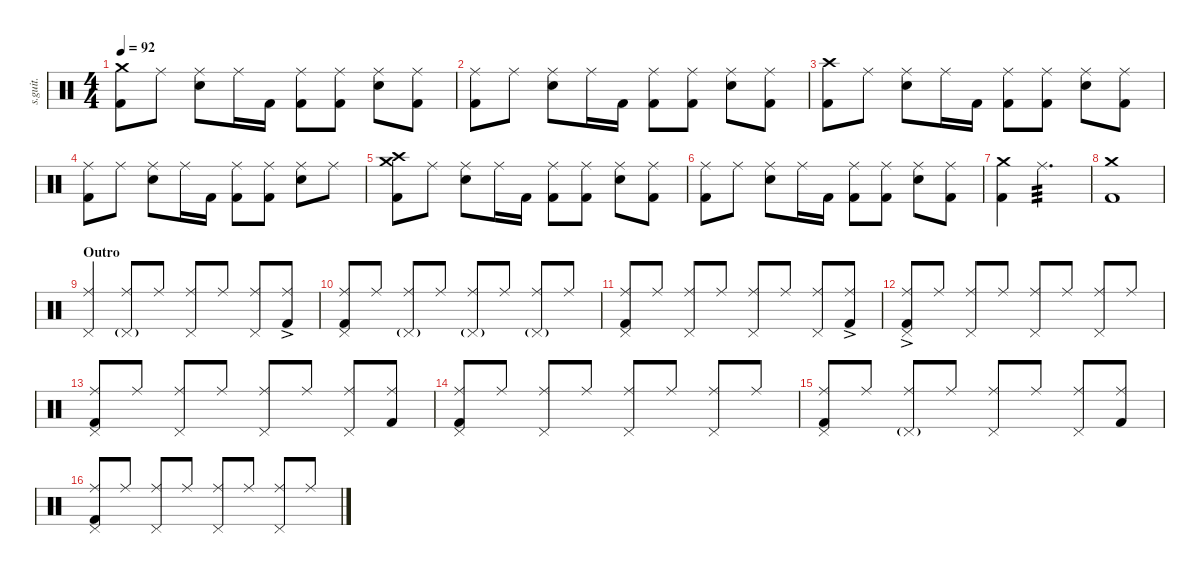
\defaultSystemsLayout 4
\hideDynamics
\bracketExtendMode nobrackets
\track ("Phil Selway | DW Drum Kit | Drums" "s.guit.") {instrument percussion}
\staff {score}
\articulation defaults
\ts (4 4)
\tempo 92
\clef neutral
\ks c
("Crash medium (hit)" "Kick (hit) 2").8{dy fff} "Ride (middle)".8 ("Ride (middle)" "Snare (hit) 2").8 "Ride (middle)".16 "Kick (hit) 2".16 ("Ride (middle)" "Kick (hit) 2").8 ("Ride (middle)" "Kick (hit) 2").8 ("Ride (middle)" "Snare (hit) 2").8 ("Ride (middle)" "Kick (hit) 2").8 |
("Ride (middle)" "Kick (hit) 2").8 "Ride (middle)".8 ("Ride (middle)" "Snare (hit) 2").8 "Ride (middle)".16 "Kick (hit) 2".16 ("Ride (middle)" "Kick (hit) 2").8 ("Ride (middle)" "Kick (hit) 2").8 ("Ride (middle)" "Snare (hit) 2").8 ("Ride (middle)" "Kick (hit) 2").8 |
("Crash high (hit)" "Kick (hit) 2").8 "Ride (middle)".8 ("Ride (middle)" "Snare (hit) 2").8 "Ride (middle)".16 "Kick (hit) 2".16 ("Ride (middle)" "Kick (hit) 2").8 ("Ride (middle)" "Kick (hit) 2").8 ("Ride (middle)" "Snare (hit) 2").8 ("Ride (middle)" "Kick (hit) 2").8 |
("Ride (middle)" "Kick (hit) 2").8 "Ride (middle)".8 ("Ride (middle)" "Snare (hit) 2").8 "Ride (middle)".16 "Kick (hit) 2".16 ("Ride (middle)" "Kick (hit) 2").8 ("Ride (middle)" "Kick (hit) 2").8 ("Ride (middle)" "Snare (hit) 2").8 "Ride (middle)".8 |
("Crash high (hit)" "Crash medium (hit)" "Kick (hit) 2").8 "Ride (middle)".8 ("Ride (middle)" "Snare (hit) 2").8 "Ride (middle)".16 "Kick (hit) 2".16 ("Ride (middle)" "Kick (hit) 2").8 ("Ride (middle)" "Kick (hit) 2").8 ("Ride (middle)" "Snare (hit) 2").8 ("Ride (middle)" "Kick (hit) 2").8 |
("Ride (middle)" "Kick (hit) 2").8 "Ride (middle)".8 ("Ride (middle)" "Snare (hit) 2").8 "Ride (middle)".16 "Kick (hit) 2".16 ("Ride (middle)" "Kick (hit) 2").8 ("Ride (middle)" "Kick (hit) 2").8 ("Ride (middle)" "Snare (hit) 2").8 ("Ride (middle)" "Kick (hit) 2").8 |
("Crash medium (hit)" "Kick (hit) 2").4 "Ride (middle)".2{d tp 3 dy f} |
("Crash medium (hit)" "Kick (hit) 2").1{dy fff} |
\section ("" "Outro")
("Ride (middle)" "Pedal Hi-Hat (hit)").4{dy mf} ("Ride (middle)" "Pedal Hi-Hat (hit)"{g}).8 "Ride (middle)".8 ("Ride (middle)" "Pedal Hi-Hat (hit)").8 "Ride (middle)".8 ("Ride (middle)" "Pedal Hi-Hat (hit)").8 ("Ride (middle)"{ac} "Kick (hit) 2").8 |
("Ride (middle)" "Kick (hit) 2" "Pedal Hi-Hat (hit)").8 "Ride (middle)".8 ("Ride (middle)" "Pedal Hi-Hat (hit)"{g}).8 "Ride (middle)".8 ("Ride (middle)" "Pedal Hi-Hat (hit)"{g}).8 "Ride (middle)".8 ("Ride (middle)" "Pedal Hi-Hat (hit)"{g}).8 "Ride (middle)".8 |
("Ride (middle)" "Kick (hit) 2" "Pedal Hi-Hat (hit)").8 "Ride (middle)".8 ("Ride (middle)" "Pedal Hi-Hat (hit)").8 "Ride (middle)".8 ("Ride (middle)" "Pedal Hi-Hat (hit)").8 "Ride (middle)".8 ("Ride (middle)" "Pedal Hi-Hat (hit)").8 ("Ride (middle)"{ac} "Kick (hit) 2").8 |
("Ride (middle)"{ac} "Kick (hit) 2" "Pedal Hi-Hat (hit)").8 "Ride (middle)".8 ("Ride (middle)" "Pedal Hi-Hat (hit)").8 "Ride (middle)".8 ("Ride (middle)" "Pedal Hi-Hat (hit)").8 "Ride (middle)".8 ("Ride (middle)" "Pedal Hi-Hat (hit)").8 "Ride (middle)".8 |
("Ride (middle)" "Kick (hit) 2" "Pedal Hi-Hat (hit)").8 "Ride (middle)".8 ("Ride (middle)" "Pedal Hi-Hat (hit)").8 "Ride (middle)".8 ("Ride (middle)" "Pedal Hi-Hat (hit)").8 "Ride (middle)".8 ("Ride (middle)" "Pedal Hi-Hat (hit)").8 ("Ride (middle)" "Kick (hit) 2").8 |
("Ride (middle)" "Kick (hit) 2" "Pedal Hi-Hat (hit)").8 "Ride (middle)".8 ("Ride (middle)" "Pedal Hi-Hat (hit)").8 "Ride (middle)".8 ("Ride (middle)" "Pedal Hi-Hat (hit)").8 "Ride (middle)".8 ("Ride (middle)" "Pedal Hi-Hat (hit)").8 "Ride (middle)".8 |
("Ride (middle)" "Kick (hit) 2" "Pedal Hi-Hat (hit)").8 "Ride (middle)".8 ("Ride (middle)" "Pedal Hi-Hat (hit)"{g}).8 "Ride (middle)".8 ("Ride (middle)" "Pedal Hi-Hat (hit)").8 "Ride (middle)".8 ("Ride (middle)" "Pedal Hi-Hat (hit)").8 ("Ride (middle)" "Kick (hit) 2").8 |
("Ride (middle)" "Kick (hit) 2" "Pedal Hi-Hat (hit)").8 "Ride (middle)".8 ("Ride (middle)" "Pedal Hi-Hat (hit)").8 "Ride (middle)".8 ("Ride (middle)" "Pedal Hi-Hat (hit)").8 "Ride (middle)".8 ("Ride (middle)" "Pedal Hi-Hat (hit)").8 "Ride (middle)".8
